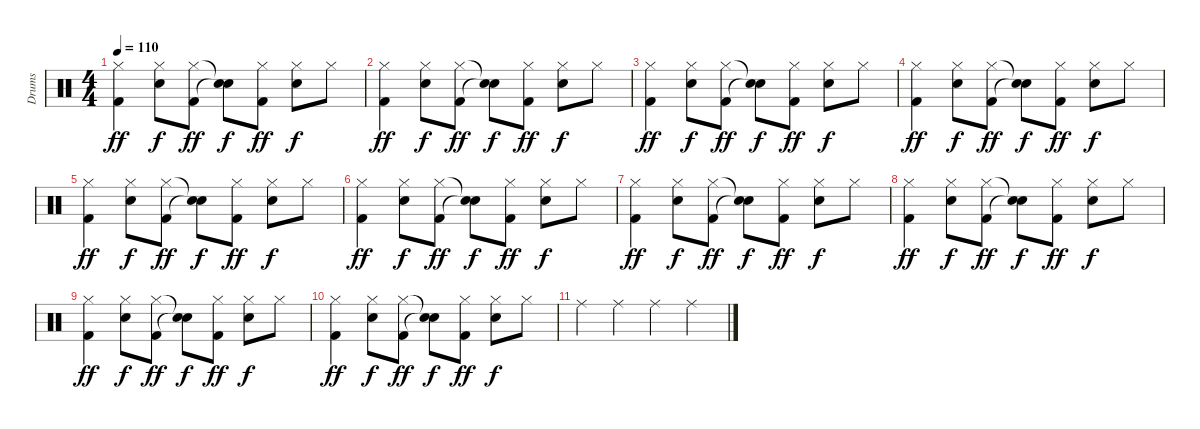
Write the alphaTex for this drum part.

\track ("Drums" "Drums") {instrument percussion}
\staff {score}
\articulation defaults
\ts (4 4)
\tempo 110
\clef neutral
\ks c
("Hi-Hat (closed)" "Kick (hit) 2").4{dy ff} ("Hi-Hat (closed)" "Electric Snare (hit)").8{dy f} ("Hi-Hat (closed)" "Kick (hit) 2").8{dy ff} ("Snare (hit)"{t} "Snare (hit)"{t}).8{dy f} ("Hi-Hat (closed)" "Kick (hit) 2").8{dy ff} ("Hi-Hat (closed)" "Electric Snare (hit)").8{dy f} "Hi-Hat (closed)".8 |
("Hi-Hat (closed)" "Kick (hit) 2").4{dy ff} ("Hi-Hat (closed)" "Electric Snare (hit)").8{dy f} ("Hi-Hat (closed)" "Kick (hit) 2").8{dy ff} ("Snare (hit)"{t} "Snare (hit)"{t}).8{dy f} ("Hi-Hat (closed)" "Kick (hit) 2").8{dy ff} ("Hi-Hat (closed)" "Electric Snare (hit)").8{dy f} "Hi-Hat (closed)".8 |
("Hi-Hat (closed)" "Kick (hit) 2").4{dy ff} ("Hi-Hat (closed)" "Electric Snare (hit)").8{dy f} ("Hi-Hat (closed)" "Kick (hit) 2").8{dy ff} ("Snare (hit)"{t} "Snare (hit)"{t}).8{dy f} ("Hi-Hat (closed)" "Kick (hit) 2").8{dy ff} ("Hi-Hat (closed)" "Electric Snare (hit)").8{dy f} "Hi-Hat (closed)".8 |
("Hi-Hat (closed)" "Kick (hit) 2").4{dy ff} ("Hi-Hat (closed)" "Electric Snare (hit)").8{dy f} ("Hi-Hat (closed)" "Kick (hit) 2").8{dy ff} ("Snare (hit)"{t} "Snare (hit)"{t}).8{dy f} ("Hi-Hat (closed)" "Kick (hit) 2").8{dy ff} ("Hi-Hat (closed)" "Electric Snare (hit)").8{dy f} "Hi-Hat (closed)".8 |
("Hi-Hat (closed)" "Kick (hit) 2").4{dy ff} ("Hi-Hat (closed)" "Electric Snare (hit)").8{dy f} ("Hi-Hat (closed)" "Kick (hit) 2").8{dy ff} ("Snare (hit)"{t} "Snare (hit)"{t}).8{dy f} ("Hi-Hat (closed)" "Kick (hit) 2").8{dy ff} ("Hi-Hat (closed)" "Electric Snare (hit)").8{dy f} "Hi-Hat (closed)".8 |
("Hi-Hat (closed)" "Kick (hit) 2").4{dy ff} ("Hi-Hat (closed)" "Electric Snare (hit)").8{dy f} ("Hi-Hat (closed)" "Kick (hit) 2").8{dy ff} ("Snare (hit)"{t} "Snare (hit)"{t}).8{dy f} ("Hi-Hat (closed)" "Kick (hit) 2").8{dy ff} ("Hi-Hat (closed)" "Electric Snare (hit)").8{dy f} "Hi-Hat (closed)".8 |
("Hi-Hat (closed)" "Kick (hit) 2").4{dy ff} ("Hi-Hat (closed)" "Electric Snare (hit)").8{dy f} ("Hi-Hat (closed)" "Kick (hit) 2").8{dy ff} ("Snare (hit)"{t} "Snare (hit)"{t}).8{dy f} ("Hi-Hat (closed)" "Kick (hit) 2").8{dy ff} ("Hi-Hat (closed)" "Electric Snare (hit)").8{dy f} "Hi-Hat (closed)".8 |
("Hi-Hat (closed)" "Kick (hit) 2").4{dy ff} ("Hi-Hat (closed)" "Electric Snare (hit)").8{dy f} ("Hi-Hat (closed)" "Kick (hit) 2").8{dy ff} ("Snare (hit)"{t} "Snare (hit)"{t}).8{dy f} ("Hi-Hat (closed)" "Kick (hit) 2").8{dy ff} ("Hi-Hat (closed)" "Electric Snare (hit)").8{dy f} "Hi-Hat (closed)".8 |
("Hi-Hat (closed)" "Kick (hit) 2").4{dy ff} ("Hi-Hat (closed)" "Electric Snare (hit)").8{dy f} ("Hi-Hat (closed)" "Kick (hit) 2").8{dy ff} ("Snare (hit)"{t} "Snare (hit)"{t}).8{dy f} ("Hi-Hat (closed)" "Kick (hit) 2").8{dy ff} ("Hi-Hat (closed)" "Electric Snare (hit)").8{dy f} "Hi-Hat (closed)".8 |
("Hi-Hat (closed)" "Kick (hit) 2").4{dy ff} ("Hi-Hat (closed)" "Electric Snare (hit)").8{dy f} ("Hi-Hat (closed)" "Kick (hit) 2").8{dy ff} ("Snare (hit)"{t} "Snare (hit)"{t}).8{dy f} ("Hi-Hat (closed)" "Kick (hit) 2").8{dy ff} ("Hi-Hat (closed)" "Electric Snare (hit)").8{dy f} "Hi-Hat (closed)".8 |
"Ride (middle)".4 "Ride (middle)".4 "Ride (middle)".4 "Ride (middle)".4
